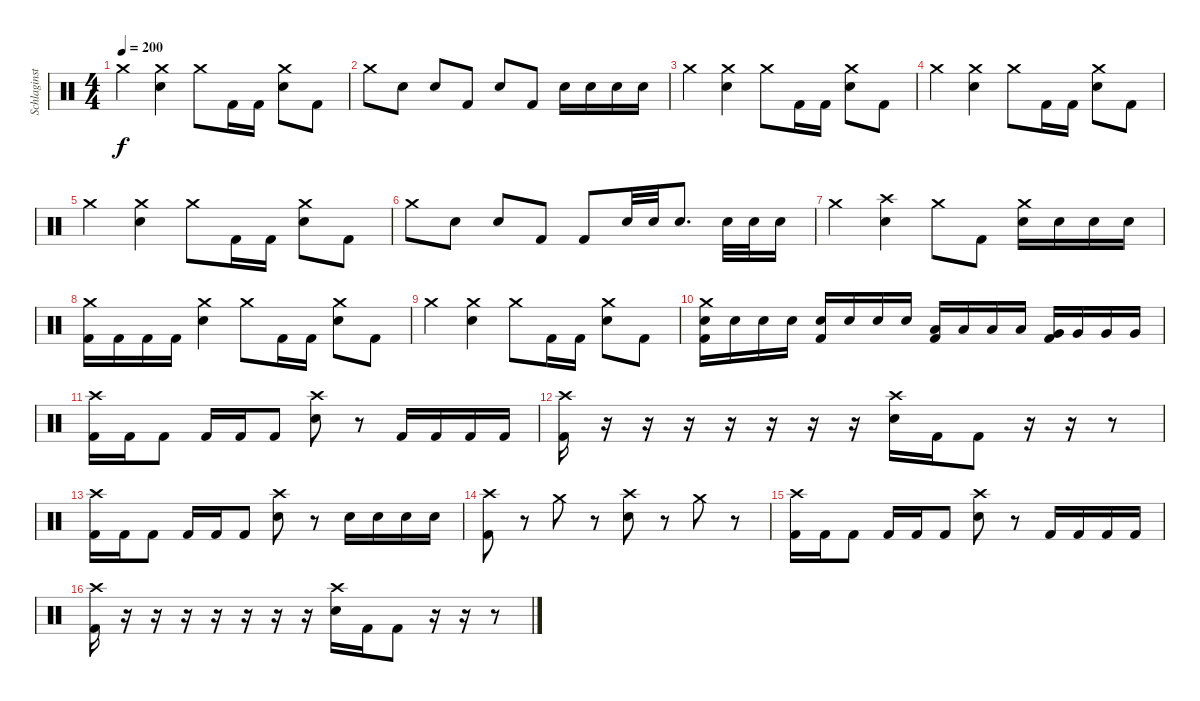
\track ("Schlaginstrumente - Auswahl" "Schlaginst") {instrument percussion}
\staff {score}
\articulation defaults
\ts (4 4)
\tempo 200
\clef neutral
\ks c "Crash medium (hit)".4{dy f}
("Crash medium (hit)" "Electric Snare (hit)").4 "Crash medium (hit)".8 "Kick (hit) 2".16 "Kick (hit) 2".16 ("Crash medium (hit)" "Electric Snare (hit)").8 "Kick (hit) 2".8 |
"Crash medium (hit)".8 "Electric Snare (hit)".8 "Electric Snare (hit)".8 "Kick (hit) 2".8 "Electric Snare (hit)".8 "Kick (hit) 2".8 "Electric Snare (hit)".16 "Electric Snare (hit)".16 "Electric Snare (hit)".16 "Electric Snare (hit)".16 |
"Crash medium (hit)".4 ("Crash medium (hit)" "Electric Snare (hit)").4 "Crash medium (hit)".8 "Kick (hit) 2".16 "Kick (hit) 2".16 ("Crash medium (hit)" "Electric Snare (hit)").8 "Kick (hit) 2".8 |
"Crash medium (hit)".4 ("Crash medium (hit)" "Electric Snare (hit)").4 "Crash medium (hit)".8 "Kick (hit) 2".16 "Kick (hit) 2".16 ("Crash medium (hit)" "Electric Snare (hit)").8 "Kick (hit) 2".8 |
"Crash medium (hit)".4 ("Crash medium (hit)" "Electric Snare (hit)").4 "Crash medium (hit)".8 "Kick (hit) 2".16 "Kick (hit) 2".16 ("Crash medium (hit)" "Electric Snare (hit)").8 "Kick (hit) 2".8 |
"Crash medium (hit)".8 "Electric Snare (hit)".8 "Electric Snare (hit)".8 "Kick (hit) 2".8 "Kick (hit) 2".8 "Electric Snare (hit)".32 "Electric Snare (hit)".32 "Electric Snare (hit)".8{d} "Electric Snare (hit)".32 "Electric Snare (hit)".32 "Electric Snare (hit)".16 |
"Crash medium (hit)".4 ("Crash high (hit)" "Electric Snare (hit)").4 "Crash medium (hit)".8 "Kick (hit) 2".8 ("Crash medium (hit)" "Electric Snare (hit)").16 "Electric Snare (hit)".16 "Electric Snare (hit)".16 "Electric Snare (hit)".16 |
("Crash medium (hit)" "Kick (hit) 2").16 "Kick (hit) 2".16 "Kick (hit) 2".16 "Kick (hit) 2".16 ("Crash medium (hit)" "Electric Snare (hit)").4 "Crash medium (hit)".8 "Kick (hit) 2".16 "Kick (hit) 2".16 ("Crash medium (hit)" "Electric Snare (hit)").8 "Kick (hit) 2".8 |
"Crash medium (hit)".4 ("Crash medium (hit)" "Electric Snare (hit)").4 "Crash medium (hit)".8 "Kick (hit) 2".16 "Kick (hit) 2".16 ("Crash medium (hit)" "Electric Snare (hit)").8 "Kick (hit) 2".8 |
("Kick (hit) 2" "Crash medium (hit)" "Electric Snare (hit)").16 "Electric Snare (hit)".16 "Electric Snare (hit)".16 "Electric Snare (hit)".16 ("Kick (hit) 2" "Electric Snare (hit)").16 "Electric Snare (hit)".16 "Electric Snare (hit)".16 "Electric Snare (hit)".16 ("Kick (hit) 2" "Low Tom (hit)").16 "Low Tom (hit)".16 "Low Tom (hit)".16 "Low Tom (hit)".16 ("Kick (hit) 2" "Very Low Tom (hit)").16 "Very Low Tom (hit)".16 "Very Low Tom (hit)".16 "Very Low Tom (hit)".16 |
("Crash high (hit)" "Kick (hit) 2").16 "Kick (hit) 2".16 "Kick (hit) 2".8 "Kick (hit) 2".16 "Kick (hit) 2".16 "Kick (hit) 2".8 ("Crash high (hit)" "Electric Snare (hit)").8 r.8 "Kick (hit) 2".16 "Kick (hit) 2".16 "Kick (hit) 2".16 "Kick (hit) 2".16 |
("Crash high (hit)" "Kick (hit) 2").16 r.16 r.16 r.16 r.16 r.16 r.16 r.16 ("Crash high (hit)" "Electric Snare (hit)").16 "Kick (hit) 2".16 "Kick (hit) 2".8 r.16 r.16 r.8 |
("Crash high (hit)" "Kick (hit) 2").16 "Kick (hit) 2".16 "Kick (hit) 2".8 "Kick (hit) 2".16 "Kick (hit) 2".16 "Kick (hit) 2".8 ("Crash high (hit)" "Electric Snare (hit)").8 r.8 "Electric Snare (hit)".16 "Electric Snare (hit)".16 "Electric Snare (hit)".16 "Electric Snare (hit)".16 |
("Crash high (hit)" "Kick (hit) 2").8 r.8 "Crash medium (hit)".8 r.8 ("Crash high (hit)" "Electric Snare (hit)").8 r.8 "Crash medium (hit)".8 r.8 |
("Crash high (hit)" "Kick (hit) 2").16 "Kick (hit) 2".16 "Kick (hit) 2".8 "Kick (hit) 2".16 "Kick (hit) 2".16 "Kick (hit) 2".8 ("Crash high (hit)" "Electric Snare (hit)").8 r.8 "Kick (hit) 2".16 "Kick (hit) 2".16 "Kick (hit) 2".16 "Kick (hit) 2".16 |
("Crash high (hit)" "Kick (hit) 2").16 r.16 r.16 r.16 r.16 r.16 r.16 r.16 ("Crash high (hit)" "Electric Snare (hit)").16 "Kick (hit) 2".16 "Kick (hit) 2".8 r.16 r.16 r.8
